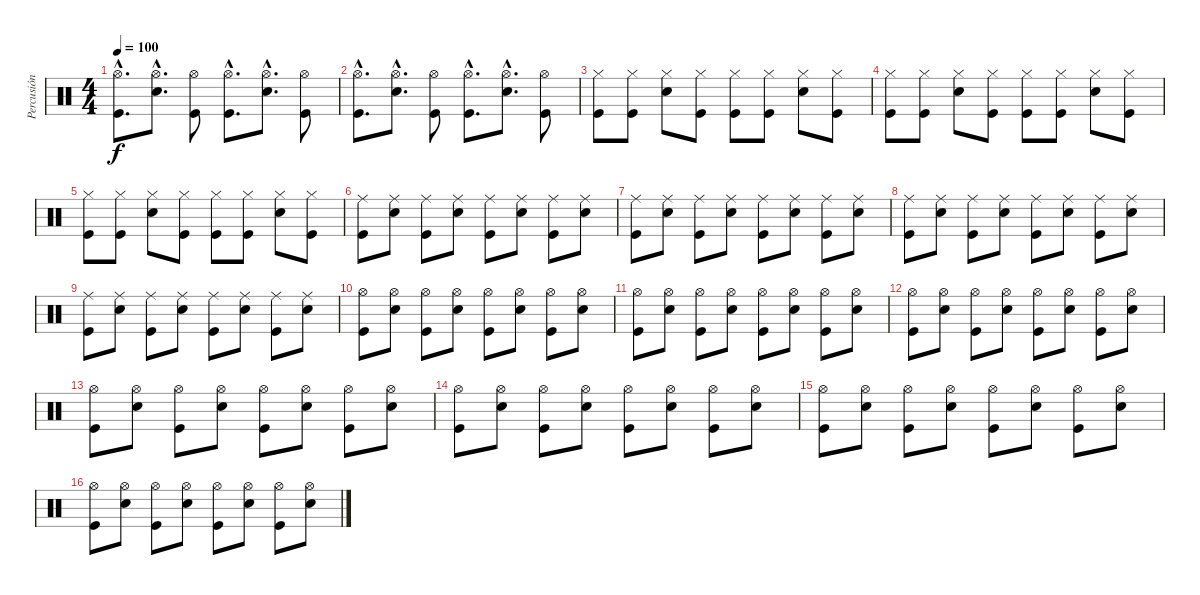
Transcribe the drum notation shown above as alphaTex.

\track ("Percusión" "Percusión") {instrument percussion}
\staff {score}
\articulation defaults
\ts (4 4)
\tempo 100
\clef neutral
\ks c
("Hi-Hat (open)"{hac} "Kick (hit)"{hac}).8{d dy f} ("Hi-Hat (open)"{hac} "Snare (hit) 2"{hac}).8{d} ("Hi-Hat (open)" "Kick (hit)").8 ("Hi-Hat (open)"{hac} "Kick (hit)"{hac}).8{d} ("Hi-Hat (open)"{hac} "Snare (hit) 2"{hac}).8{d} ("Hi-Hat (open)" "Kick (hit)").8 |
("Hi-Hat (open)"{hac} "Kick (hit)"{hac}).8{d} ("Hi-Hat (open)"{hac} "Snare (hit) 2"{hac}).8{d} ("Hi-Hat (open)" "Kick (hit)").8 ("Hi-Hat (open)"{hac} "Kick (hit)"{hac}).8{d} ("Hi-Hat (open)"{hac} "Snare (hit) 2"{hac}).8{d} ("Hi-Hat (open)" "Kick (hit)").8 |
("Hi-Hat (closed)" "Kick (hit)").8 ("Hi-Hat (closed)" "Kick (hit)").8 ("Hi-Hat (closed)" "Snare (hit) 2").8 ("Hi-Hat (closed)" "Kick (hit)").8 ("Hi-Hat (closed)" "Kick (hit)").8 ("Hi-Hat (closed)" "Kick (hit)").8 ("Hi-Hat (closed)" "Snare (hit) 2").8 ("Hi-Hat (closed)" "Kick (hit)").8 |
("Hi-Hat (closed)" "Kick (hit)").8 ("Hi-Hat (closed)" "Kick (hit)").8 ("Hi-Hat (closed)" "Snare (hit) 2").8 ("Hi-Hat (closed)" "Kick (hit)").8 ("Hi-Hat (closed)" "Kick (hit)").8 ("Hi-Hat (closed)" "Kick (hit)").8 ("Hi-Hat (closed)" "Snare (hit) 2").8 ("Hi-Hat (closed)" "Kick (hit)").8 |
("Hi-Hat (closed)" "Kick (hit)").8 ("Hi-Hat (closed)" "Kick (hit)").8 ("Hi-Hat (closed)" "Snare (hit) 2").8 ("Hi-Hat (closed)" "Kick (hit)").8 ("Hi-Hat (closed)" "Kick (hit)").8 ("Hi-Hat (closed)" "Kick (hit)").8 ("Hi-Hat (closed)" "Snare (hit) 2").8 ("Hi-Hat (closed)" "Kick (hit)").8 |
("Ride (middle)" "Kick (hit)").8 ("Ride (middle)" "Snare (hit) 2").8 ("Ride (middle)" "Kick (hit)").8 ("Ride (middle)" "Snare (hit) 2").8 ("Ride (middle)" "Kick (hit)").8 ("Ride (middle)" "Snare (hit) 2").8 ("Ride (middle)" "Kick (hit)").8 ("Ride (middle)" "Snare (hit) 2").8 |
("Ride (middle)" "Kick (hit)").8 ("Ride (middle)" "Snare (hit) 2").8 ("Ride (middle)" "Kick (hit)").8 ("Ride (middle)" "Snare (hit) 2").8 ("Ride (middle)" "Kick (hit)").8 ("Ride (middle)" "Snare (hit) 2").8 ("Ride (middle)" "Kick (hit)").8 ("Ride (middle)" "Snare (hit) 2").8 |
("Ride (middle)" "Kick (hit)").8 ("Ride (middle)" "Snare (hit) 2").8 ("Ride (middle)" "Kick (hit)").8 ("Ride (middle)" "Snare (hit) 2").8 ("Ride (middle)" "Kick (hit)").8 ("Ride (middle)" "Snare (hit) 2").8 ("Ride (middle)" "Kick (hit)").8 ("Ride (middle)" "Snare (hit) 2").8 |
("Ride (middle)" "Kick (hit)").8 ("Ride (middle)" "Snare (hit) 2").8 ("Ride (middle)" "Kick (hit)").8 ("Ride (middle)" "Snare (hit) 2").8 ("Ride (middle)" "Kick (hit)").8 ("Ride (middle)" "Snare (hit) 2").8 ("Ride (middle)" "Kick (hit)").8 ("Ride (middle)" "Snare (hit) 2").8 |
("Hi-Hat (open)" "Kick (hit)").8 ("Hi-Hat (open)" "Snare (hit) 2").8 ("Hi-Hat (open)" "Kick (hit)").8 ("Hi-Hat (open)" "Snare (hit) 2").8 ("Hi-Hat (open)" "Kick (hit)").8 ("Hi-Hat (open)" "Snare (hit) 2").8 ("Hi-Hat (open)" "Kick (hit)").8 ("Hi-Hat (open)" "Snare (hit) 2").8 |
("Hi-Hat (open)" "Kick (hit)").8 ("Hi-Hat (open)" "Snare (hit) 2").8 ("Hi-Hat (open)" "Kick (hit)").8 ("Hi-Hat (open)" "Snare (hit) 2").8 ("Hi-Hat (open)" "Kick (hit)").8 ("Hi-Hat (open)" "Snare (hit) 2").8 ("Hi-Hat (open)" "Kick (hit)").8 ("Hi-Hat (open)" "Snare (hit) 2").8 |
("Hi-Hat (open)" "Kick (hit)").8 ("Hi-Hat (open)" "Snare (hit) 2").8 ("Hi-Hat (open)" "Kick (hit)").8 ("Hi-Hat (open)" "Snare (hit) 2").8 ("Hi-Hat (open)" "Kick (hit)").8 ("Hi-Hat (open)" "Snare (hit) 2").8 ("Hi-Hat (open)" "Kick (hit)").8 ("Hi-Hat (open)" "Snare (hit) 2").8 |
("Hi-Hat (open)" "Kick (hit)").8 ("Hi-Hat (open)" "Snare (hit) 2").8 ("Hi-Hat (open)" "Kick (hit)").8 ("Hi-Hat (open)" "Snare (hit) 2").8 ("Hi-Hat (open)" "Kick (hit)").8 ("Hi-Hat (open)" "Snare (hit) 2").8 ("Hi-Hat (open)" "Kick (hit)").8 ("Hi-Hat (open)" "Snare (hit) 2").8 |
("Hi-Hat (open)" "Kick (hit)").8 ("Hi-Hat (open)" "Snare (hit) 2").8 ("Hi-Hat (open)" "Kick (hit)").8 ("Hi-Hat (open)" "Snare (hit) 2").8 ("Hi-Hat (open)" "Kick (hit)").8 ("Hi-Hat (open)" "Snare (hit) 2").8 ("Hi-Hat (open)" "Kick (hit)").8 ("Hi-Hat (open)" "Snare (hit) 2").8 |
("Hi-Hat (open)" "Kick (hit)").8 ("Hi-Hat (open)" "Snare (hit) 2").8 ("Hi-Hat (open)" "Kick (hit)").8 ("Hi-Hat (open)" "Snare (hit) 2").8 ("Hi-Hat (open)" "Kick (hit)").8 ("Hi-Hat (open)" "Snare (hit) 2").8 ("Hi-Hat (open)" "Kick (hit)").8 ("Hi-Hat (open)" "Snare (hit) 2").8 |
("Hi-Hat (open)" "Kick (hit)").8 ("Hi-Hat (open)" "Snare (hit) 2").8 ("Hi-Hat (open)" "Kick (hit)").8 ("Hi-Hat (open)" "Snare (hit) 2").8 ("Hi-Hat (open)" "Kick (hit)").8 ("Hi-Hat (open)" "Snare (hit) 2").8 ("Hi-Hat (open)" "Kick (hit)").8 ("Hi-Hat (open)" "Snare (hit) 2").8
